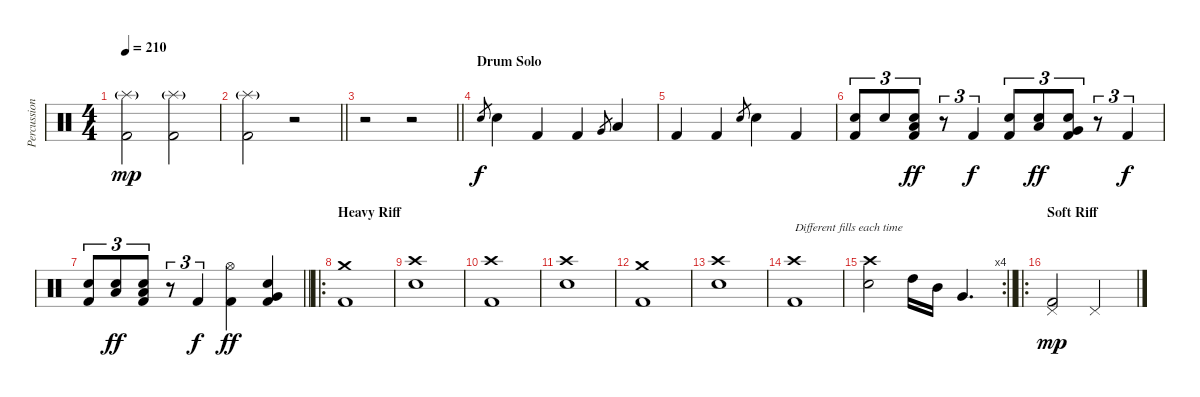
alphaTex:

\track ("Percussion" "Percussion") {instrument percussion}
\staff {score}
\articulation defaults
\ts (4 4)
\tempo 210
\clef neutral
\ks c
("Splash (hit)"{g} "Kick (hit) 2").2{dy mp} ("Splash (hit)"{g} "Kick (hit) 2").2 |
\barLineRight lightlight
("Splash (hit)"{g} "Kick (hit) 2").2 r.2 |
\barLineRight lightlight
r.2 r.2 |
\section ("" "Drum Solo")
"Electric Snare (hit)".8{gr dy f} "Electric Snare (hit)".4 "Kick (hit) 2".4 "Kick (hit) 2".4 "Very Low Tom (hit)".8{gr} "Low Tom (hit)".4 |
"Kick (hit) 2".4 "Kick (hit) 2".4 "Electric Snare (hit)".8{gr} "Electric Snare (hit)".4 "Kick (hit) 2".4 |
("Electric Snare (hit)" "Kick (hit) 2").8{tu (3 2)} "Electric Snare (hit)".8{tu (3 2)} ("Low Tom (hit)" "Electric Snare (hit)" "Kick (hit) 2").8{tu (3 2) dy ff} r.8{tu (3 2)} "Kick (hit) 2".4{tu (3 2) dy f} ("Electric Snare (hit)" "Kick (hit) 2").8{tu (3 2)} ("Low Tom (hit)" "Electric Snare (hit)").8{tu (3 2) dy ff} ("Very Low Tom (hit)" "Electric Snare (hit)" "Kick (hit) 2").8{tu (3 2)} r.8{tu (3 2)} "Kick (hit) 2".4{tu (3 2) dy f} |
\barLineRight lightlight
("Electric Snare (hit)" "Kick (hit) 2").8{tu (3 2)} ("Low Tom (hit)" "Electric Snare (hit)").8{tu (3 2) dy ff} ("Low Floor Tom (hit)" "Electric Snare (hit)" "Kick (hit) 2").8{tu (3 2)} r.8{tu (3 2)} "Kick (hit) 2".4{tu (3 2) dy f} ("Hi-Hat (open)" "Kick (hit) 2").4{dy ff} ("Electric Snare (hit)" "Very Low Tom (hit)" "Kick (hit) 2").4 |
\ro
\section ("" "Heavy Riff")
("Crash medium (hit)" "Kick (hit) 2").1 |
("Crash high (hit)" "Electric Snare (hit)").1 |
("Crash high (hit)" "Kick (hit) 2").1 |
("Crash high (hit)" "Electric Snare (hit)").1 |
("Crash medium (hit)" "Kick (hit) 2").1 |
("Crash high (hit)" "Electric Snare (hit)").1 |
("Crash high (hit)" "Kick (hit) 2").1{txt "Different fills each time"} |
\rc 4
\barLineRight lightlight
("Crash high (hit)" "Electric Snare (hit)").2 "High Tom (hit)".16 "Mid Tom (hit)".16 "Very Low Tom (hit)".4{d} |
\ro
\section ("" "Soft Riff")
("Pedal Hi-Hat (hit)" "Kick (hit) 2").2{dy mp} "Pedal Hi-Hat (hit)".2
